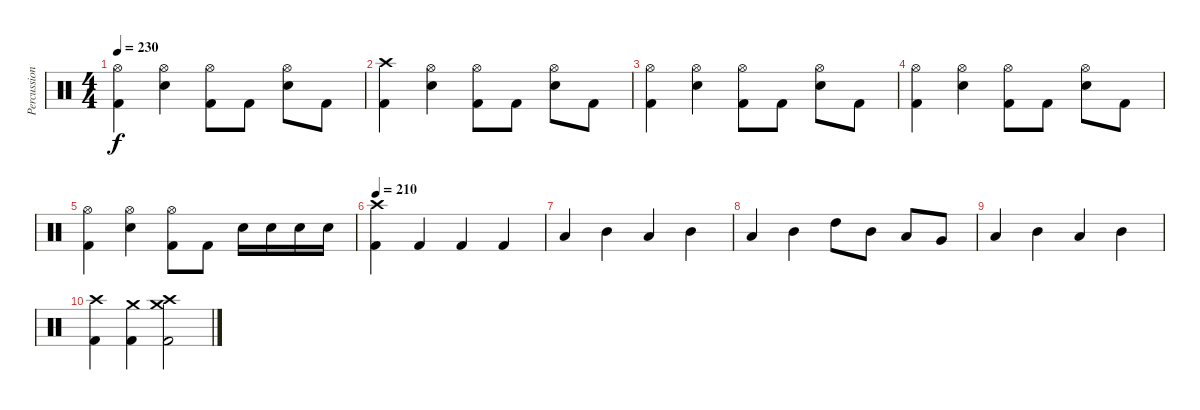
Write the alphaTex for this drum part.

\track ("Percussion" "Percussion") {instrument percussion}
\staff {score}
\articulation defaults
\ts (4 4)
\tempo 230
\clef neutral
\ks c
("Hi-Hat (open)" "Kick (hit) 2").4{dy f} ("Hi-Hat (open)" "Electric Snare (hit)").4 ("Hi-Hat (open)" "Kick (hit) 2").8 "Kick (hit) 2".8 ("Hi-Hat (open)" "Electric Snare (hit)").8 "Kick (hit) 2".8 |
("Crash high (hit)" "Kick (hit) 2").4 ("Hi-Hat (open)" "Electric Snare (hit)").4 ("Hi-Hat (open)" "Kick (hit) 2").8 "Kick (hit) 2".8 ("Hi-Hat (open)" "Electric Snare (hit)").8 "Kick (hit) 2".8 |
("Hi-Hat (open)" "Kick (hit) 2").4 ("Hi-Hat (open)" "Electric Snare (hit)").4 ("Hi-Hat (open)" "Kick (hit) 2").8 "Kick (hit) 2".8 ("Hi-Hat (open)" "Electric Snare (hit)").8 "Kick (hit) 2".8 |
("Hi-Hat (open)" "Kick (hit) 2").4 ("Hi-Hat (open)" "Electric Snare (hit)").4 ("Hi-Hat (open)" "Kick (hit) 2").8 "Kick (hit) 2".8 ("Hi-Hat (open)" "Electric Snare (hit)").8 "Kick (hit) 2".8 |
("Hi-Hat (open)" "Kick (hit) 2").4 ("Hi-Hat (open)" "Electric Snare (hit)").4 ("Hi-Hat (open)" "Kick (hit) 2").8 "Kick (hit) 2".8 "Electric Snare (hit)".16 "Electric Snare (hit)".16 "Electric Snare (hit)".16 "Electric Snare (hit)".16 |
\tempo 210
("Crash high (hit)" "Kick (hit) 2").4 "Kick (hit) 2".4 "Kick (hit) 2".4 "Kick (hit) 2".4 |
"Low Tom (hit)".4 "Mid Tom (hit)".4 "Low Tom (hit)".4 "Mid Tom (hit)".4 |
"Low Tom (hit)".4 "Mid Tom (hit)".4 "High Tom (hit)".8 "Mid Tom (hit)".8 "Low Tom (hit)".8 "Very Low Tom (hit)".8 |
"Low Tom (hit)".4 "Mid Tom (hit)".4 "Low Tom (hit)".4 "Mid Tom (hit)".4 |
("Crash high (hit)" "Kick (hit) 2").4 ("Crash medium (hit)" "Kick (hit) 2").4 ("Crash medium (hit)" "Crash high (hit)" "Kick (hit) 2").2
